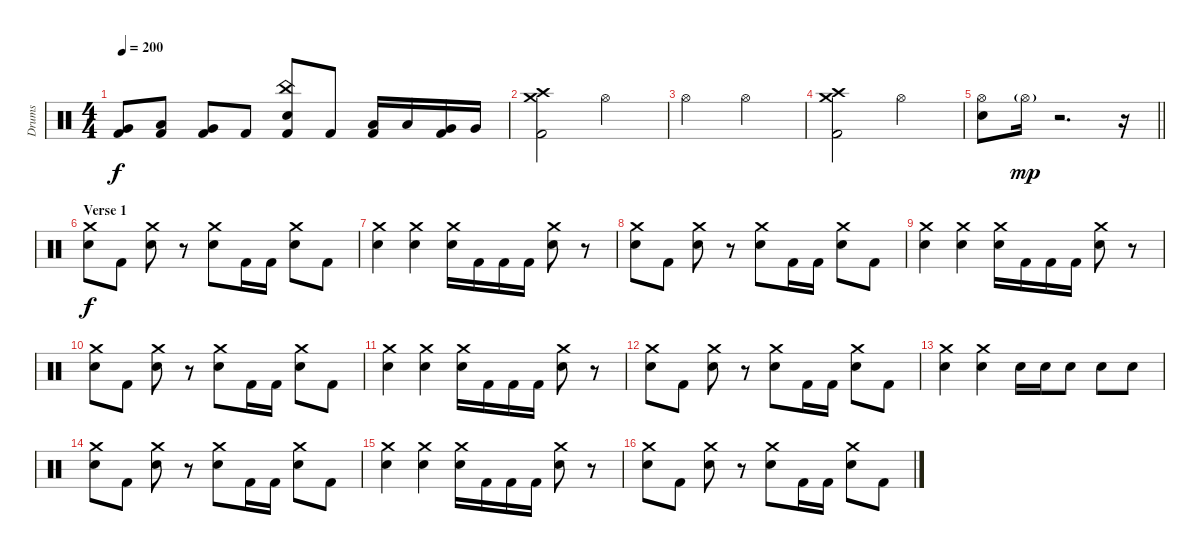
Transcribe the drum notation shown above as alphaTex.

\track ("Drums" "Drums") {instrument percussion}
\staff {score}
\articulation defaults
\ts (4 4)
\tempo 200
\clef neutral
\ks c
("Very Low Tom (hit)" "Kick (hit) 2").8{dy f} ("Low Tom (hit)" "Kick (hit) 2").8 ("Very Low Tom (hit)" "Kick (hit) 2").8 "Kick (hit) 2".8 ("China (hit)" "Electric Snare (hit)" "Kick (hit) 2").8 "Kick (hit) 2".8 ("Low Tom (hit)" "Kick (hit) 2").16 "Low Tom (hit)".16 ("Very Low Tom (hit)" "Kick (hit) 2").16 "Very Low Tom (hit)".16 |
("Crash high (hit)" "Crash medium (hit)" "Kick (hit) 2").2 "Hi-Hat (open)".2 |
"Hi-Hat (open)".2 "Hi-Hat (open)".2 |
("Crash high (hit)" "Crash medium (hit)" "Kick (hit) 2").2 "Hi-Hat (open)".2 |
\barLineRight lightlight
("Hi-Hat (open)" "Electric Snare (hit)").8 "Hi-Hat (open)"{g}.16{dy mp} r.2{d} r.16 |
\section ("" "Verse 1")
("Crash medium (hit)" "Electric Snare (hit)").8{dy f} "Kick (hit) 2".8 ("Crash medium (hit)" "Electric Snare (hit)").8 r.8 ("Crash medium (hit)" "Electric Snare (hit)").8 "Kick (hit) 2".16 "Kick (hit) 2".16 ("Crash medium (hit)" "Electric Snare (hit)").8 "Kick (hit) 2".8 |
("Crash medium (hit)" "Electric Snare (hit)").4 ("Crash medium (hit)" "Electric Snare (hit)").4 ("Crash medium (hit)" "Electric Snare (hit)").16 "Kick (hit) 2".16 "Kick (hit) 2".16 "Kick (hit) 2".16 ("Crash medium (hit)" "Electric Snare (hit)").8 r.8 |
("Crash medium (hit)" "Electric Snare (hit)").8 "Kick (hit) 2".8 ("Crash medium (hit)" "Electric Snare (hit)").8 r.8 ("Crash medium (hit)" "Electric Snare (hit)").8 "Kick (hit) 2".16 "Kick (hit) 2".16 ("Crash medium (hit)" "Electric Snare (hit)").8 "Kick (hit) 2".8 |
("Crash medium (hit)" "Electric Snare (hit)").4 ("Crash medium (hit)" "Electric Snare (hit)").4 ("Crash medium (hit)" "Electric Snare (hit)").16 "Kick (hit) 2".16 "Kick (hit) 2".16 "Kick (hit) 2".16 ("Crash medium (hit)" "Electric Snare (hit)").8 r.8 |
("Crash medium (hit)" "Electric Snare (hit)").8 "Kick (hit) 2".8 ("Crash medium (hit)" "Electric Snare (hit)").8 r.8 ("Crash medium (hit)" "Electric Snare (hit)").8 "Kick (hit) 2".16 "Kick (hit) 2".16 ("Crash medium (hit)" "Electric Snare (hit)").8 "Kick (hit) 2".8 |
("Crash medium (hit)" "Electric Snare (hit)").4 ("Crash medium (hit)" "Electric Snare (hit)").4 ("Crash medium (hit)" "Electric Snare (hit)").16 "Kick (hit) 2".16 "Kick (hit) 2".16 "Kick (hit) 2".16 ("Crash medium (hit)" "Electric Snare (hit)").8 r.8 |
("Crash medium (hit)" "Electric Snare (hit)").8 "Kick (hit) 2".8 ("Crash medium (hit)" "Electric Snare (hit)").8 r.8 ("Crash medium (hit)" "Electric Snare (hit)").8 "Kick (hit) 2".16 "Kick (hit) 2".16 ("Crash medium (hit)" "Electric Snare (hit)").8 "Kick (hit) 2".8 |
("Crash medium (hit)" "Electric Snare (hit)").4 ("Crash medium (hit)" "Electric Snare (hit)").4 "Electric Snare (hit)".16 "Electric Snare (hit)".16 "Electric Snare (hit)".8 "Electric Snare (hit)".8 "Electric Snare (hit)".8 |
("Crash medium (hit)" "Electric Snare (hit)").8 "Kick (hit) 2".8 ("Crash medium (hit)" "Electric Snare (hit)").8 r.8 ("Crash medium (hit)" "Electric Snare (hit)").8 "Kick (hit) 2".16 "Kick (hit) 2".16 ("Crash medium (hit)" "Electric Snare (hit)").8 "Kick (hit) 2".8 |
("Crash medium (hit)" "Electric Snare (hit)").4 ("Crash medium (hit)" "Electric Snare (hit)").4 ("Crash medium (hit)" "Electric Snare (hit)").16 "Kick (hit) 2".16 "Kick (hit) 2".16 "Kick (hit) 2".16 ("Crash medium (hit)" "Electric Snare (hit)").8 r.8 |
("Crash medium (hit)" "Electric Snare (hit)").8 "Kick (hit) 2".8 ("Crash medium (hit)" "Electric Snare (hit)").8 r.8 ("Crash medium (hit)" "Electric Snare (hit)").8 "Kick (hit) 2".16 "Kick (hit) 2".16 ("Crash medium (hit)" "Electric Snare (hit)").8 "Kick (hit) 2".8
